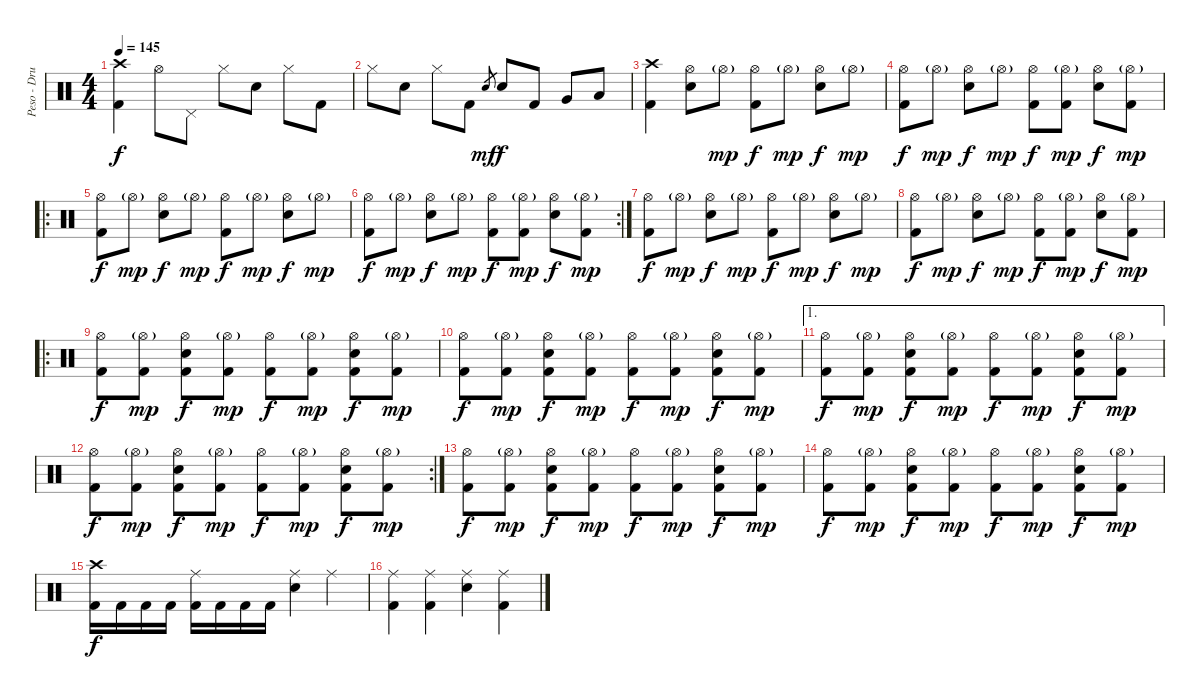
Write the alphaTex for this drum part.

\track ("Peso - Drums" "Peso - Dru") {instrument percussion}
\staff {score}
\articulation defaults
\ts (4 4)
\tempo 145
\clef neutral
\ks c
("Crash high (hit)" "Kick (hit) 2").4{dy f} "Hi-Hat (open)".8 "Pedal Hi-Hat (hit)".8 "Hi-Hat (closed)".8 "Electric Snare (hit)".8 "Hi-Hat (closed)".8 "Kick (hit) 2".8 |
"Hi-Hat (closed)".8 "Electric Snare (hit)".8 "Hi-Hat (closed)".8 "Kick (hit) 2".8 "Electric Snare (hit)".8{gr dy mf} "Electric Snare (hit)".8{dy f} "Kick (hit) 2".8 "Very Low Tom (hit)".8 "Low Tom (hit)".8 |
("Crash high (hit)" "Kick (hit) 2").4 ("Hi-Hat (open)" "Electric Snare (hit)").8 "Hi-Hat (open)"{g}.8{dy mp} ("Hi-Hat (open)" "Kick (hit) 2").8{dy f} "Hi-Hat (open)"{g}.8{dy mp} ("Hi-Hat (open)" "Electric Snare (hit)").8{dy f} "Hi-Hat (open)"{g}.8{dy mp} |
("Hi-Hat (open)" "Kick (hit) 2").8{dy f} "Hi-Hat (open)"{g}.8{dy mp} ("Hi-Hat (open)" "Electric Snare (hit)").8{dy f} "Hi-Hat (open)"{g}.8{dy mp} ("Hi-Hat (open)" "Kick (hit) 2").8{dy f} ("Hi-Hat (open)"{g} "Kick (hit) 2").8{dy mp} ("Hi-Hat (open)" "Electric Snare (hit)").8{dy f} ("Hi-Hat (open)"{g} "Kick (hit) 2").8{dy mp} |
\ro
("Hi-Hat (open)" "Kick (hit) 2").8{dy f} "Hi-Hat (open)"{g}.8{dy mp} ("Hi-Hat (open)" "Electric Snare (hit)").8{dy f} "Hi-Hat (open)"{g}.8{dy mp} ("Hi-Hat (open)" "Kick (hit) 2").8{dy f} "Hi-Hat (open)"{g}.8{dy mp} ("Hi-Hat (open)" "Electric Snare (hit)").8{dy f} "Hi-Hat (open)"{g}.8{dy mp} |
\rc 2
("Hi-Hat (open)" "Kick (hit) 2").8{dy f} "Hi-Hat (open)"{g}.8{dy mp} ("Hi-Hat (open)" "Electric Snare (hit)").8{dy f} "Hi-Hat (open)"{g}.8{dy mp} ("Hi-Hat (open)" "Kick (hit) 2").8{dy f} ("Hi-Hat (open)"{g} "Kick (hit) 2").8{dy mp} ("Hi-Hat (open)" "Electric Snare (hit)").8{dy f} ("Hi-Hat (open)"{g} "Kick (hit) 2").8{dy mp} |
("Hi-Hat (open)" "Kick (hit) 2").8{dy f} "Hi-Hat (open)"{g}.8{dy mp} ("Hi-Hat (open)" "Electric Snare (hit)").8{dy f} "Hi-Hat (open)"{g}.8{dy mp} ("Hi-Hat (open)" "Kick (hit) 2").8{dy f} "Hi-Hat (open)"{g}.8{dy mp} ("Hi-Hat (open)" "Electric Snare (hit)").8{dy f} "Hi-Hat (open)"{g}.8{dy mp} |
("Hi-Hat (open)" "Kick (hit) 2").8{dy f} "Hi-Hat (open)"{g}.8{dy mp} ("Hi-Hat (open)" "Electric Snare (hit)").8{dy f} "Hi-Hat (open)"{g}.8{dy mp} ("Hi-Hat (open)" "Kick (hit) 2").8{dy f} ("Hi-Hat (open)"{g} "Kick (hit) 2").8{dy mp} ("Hi-Hat (open)" "Electric Snare (hit)").8{dy f} ("Hi-Hat (open)"{g} "Kick (hit) 2").8{dy mp} |
\ro
("Hi-Hat (open)" "Kick (hit) 2").8{dy f} ("Hi-Hat (open)"{g} "Kick (hit) 2").8{dy mp} ("Hi-Hat (open)" "Electric Snare (hit)" "Kick (hit) 2").8{dy f} ("Hi-Hat (open)"{g} "Kick (hit) 2").8{dy mp} ("Hi-Hat (open)" "Kick (hit) 2").8{dy f} ("Hi-Hat (open)"{g} "Kick (hit) 2").8{dy mp} ("Hi-Hat (open)" "Electric Snare (hit)" "Kick (hit) 2").8{dy f} ("Hi-Hat (open)"{g} "Kick (hit) 2").8{dy mp} |
("Hi-Hat (open)" "Kick (hit) 2").8{dy f} ("Hi-Hat (open)"{g} "Kick (hit) 2").8{dy mp} ("Hi-Hat (open)" "Electric Snare (hit)" "Kick (hit) 2").8{dy f} ("Hi-Hat (open)"{g} "Kick (hit) 2").8{dy mp} ("Hi-Hat (open)" "Kick (hit) 2").8{dy f} ("Hi-Hat (open)"{g} "Kick (hit) 2").8{dy mp} ("Hi-Hat (open)" "Electric Snare (hit)" "Kick (hit) 2").8{dy f} ("Hi-Hat (open)"{g} "Kick (hit) 2").8{dy mp} |
\ae 1
("Hi-Hat (open)" "Kick (hit) 2").8{dy f} ("Hi-Hat (open)"{g} "Kick (hit) 2").8{dy mp} ("Hi-Hat (open)" "Electric Snare (hit)" "Kick (hit) 2").8{dy f} ("Hi-Hat (open)"{g} "Kick (hit) 2").8{dy mp} ("Hi-Hat (open)" "Kick (hit) 2").8{dy f} ("Hi-Hat (open)"{g} "Kick (hit) 2").8{dy mp} ("Hi-Hat (open)" "Electric Snare (hit)" "Kick (hit) 2").8{dy f} ("Hi-Hat (open)"{g} "Kick (hit) 2").8{dy mp} |
\rc 2
("Hi-Hat (open)" "Kick (hit) 2").8{dy f} ("Hi-Hat (open)"{g} "Kick (hit) 2").8{dy mp} ("Hi-Hat (open)" "Electric Snare (hit)" "Kick (hit) 2").8{dy f} ("Hi-Hat (open)"{g} "Kick (hit) 2").8{dy mp} ("Hi-Hat (open)" "Kick (hit) 2").8{dy f} ("Hi-Hat (open)"{g} "Kick (hit) 2").8{dy mp} ("Hi-Hat (open)" "Electric Snare (hit)" "Kick (hit) 2").8{dy f} ("Hi-Hat (open)"{g} "Kick (hit) 2").8{dy mp} |
("Hi-Hat (open)" "Kick (hit) 2").8{dy f} ("Hi-Hat (open)"{g} "Kick (hit) 2").8{dy mp} ("Hi-Hat (open)" "Electric Snare (hit)" "Kick (hit) 2").8{dy f} ("Hi-Hat (open)"{g} "Kick (hit) 2").8{dy mp} ("Hi-Hat (open)" "Kick (hit) 2").8{dy f} ("Hi-Hat (open)"{g} "Kick (hit) 2").8{dy mp} ("Hi-Hat (open)" "Electric Snare (hit)" "Kick (hit) 2").8{dy f} ("Hi-Hat (open)"{g} "Kick (hit) 2").8{dy mp} |
("Hi-Hat (open)" "Kick (hit) 2").8{dy f} ("Hi-Hat (open)"{g} "Kick (hit) 2").8{dy mp} ("Hi-Hat (open)" "Electric Snare (hit)" "Kick (hit) 2").8{dy f} ("Hi-Hat (open)"{g} "Kick (hit) 2").8{dy mp} ("Hi-Hat (open)" "Kick (hit) 2").8{dy f} ("Hi-Hat (open)"{g} "Kick (hit) 2").8{dy mp} ("Hi-Hat (open)" "Electric Snare (hit)" "Kick (hit) 2").8{dy f} ("Hi-Hat (open)"{g} "Kick (hit) 2").8{dy mp} |
("Crash high (hit)" "Kick (hit) 2").16{dy f} "Kick (hit) 2".16 "Kick (hit) 2".16 "Kick (hit) 2".16 ("Ride (middle)" "Kick (hit) 2").16 "Kick (hit) 2".16 "Kick (hit) 2".16 "Kick (hit) 2".16 ("Ride (middle)" "Electric Snare (hit)").4 "Ride (middle)".4 |
("Ride (middle)" "Kick (hit) 2").4 ("Ride (middle)" "Kick (hit) 2").4 ("Ride (middle)" "Electric Snare (hit)").4 ("Ride (middle)" "Kick (hit) 2").4
